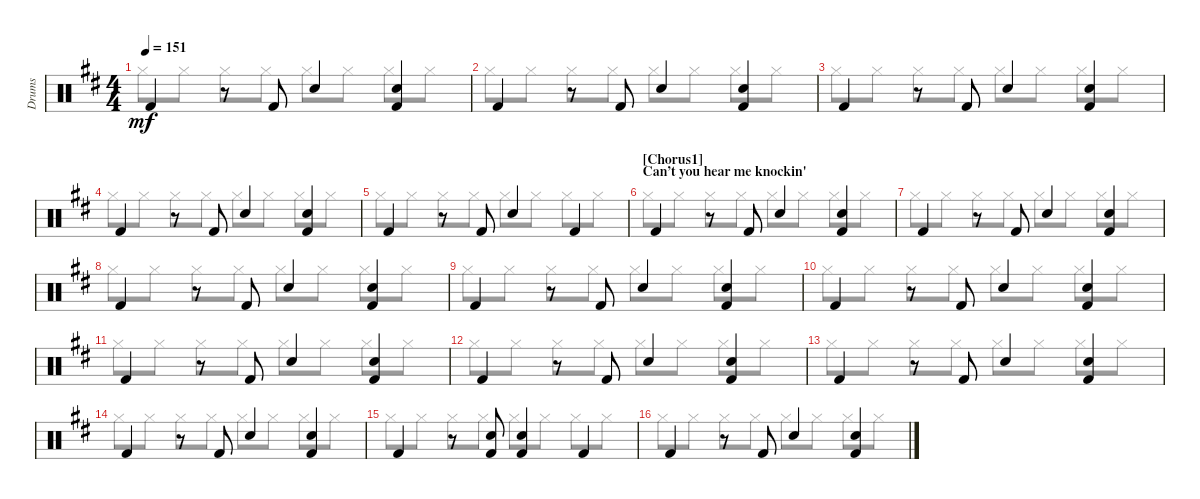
\bracketExtendMode groupsimilarinstruments
\track ("Drumkit" "Drums") {instrument percussion}
\staff {score}
\articulation defaults
\voice
\ts (4 4)
\tempo 151
\clef neutral
\ks d "Kick (hit) 2"{acc forcenatural}.4{dy mf}
r.8 "Kick (hit) 2"{acc forcenatural}.8 "Snare (hit) 2"{acc forcenatural}.4 ("Kick (hit) 2"{acc forcenatural} "Snare (hit) 2"{acc forcenatural}).4 |
"Kick (hit) 2"{acc forcenatural}.4 r.8 "Kick (hit) 2"{acc forcenatural}.8 "Snare (hit) 2"{acc forcenatural}.4 ("Kick (hit) 2"{acc forcenatural} "Snare (hit) 2"{acc forcenatural}).4 |
"Kick (hit) 2"{acc forcenatural}.4 r.8 "Kick (hit) 2"{acc forcenatural}.8 "Snare (hit) 2"{acc forcenatural}.4 ("Kick (hit) 2"{acc forcenatural} "Snare (hit) 2"{acc forcenatural}).4 |
"Kick (hit) 2"{acc forcenatural}.4 r.8 "Kick (hit) 2"{acc forcenatural}.8 "Snare (hit) 2"{acc forcenatural}.4 ("Kick (hit) 2"{acc forcenatural} "Snare (hit) 2"{acc forcenatural}).4 |
"Kick (hit) 2"{acc forcenatural}.4 r.8 "Kick (hit) 2"{acc forcenatural}.8 "Snare (hit) 2"{acc forcenatural}.4 "Kick (hit) 2"{acc forcenatural}.4 |
\section ("" "[Chorus1]\nCan’t you hear me knockin'\n")
"Kick (hit) 2"{acc forcenatural}.4 r.8 "Kick (hit) 2"{acc forcenatural}.8 "Snare (hit) 2"{acc forcenatural}.4 ("Kick (hit) 2"{acc forcenatural} "Snare (hit) 2"{acc forcenatural}).4 |
"Kick (hit) 2"{acc forcenatural}.4 r.8 "Kick (hit) 2"{acc forcenatural}.8 "Snare (hit) 2"{acc forcenatural}.4 ("Kick (hit) 2"{acc forcenatural} "Snare (hit) 2"{acc forcenatural}).4 |
"Kick (hit) 2"{acc forcenatural}.4 r.8 "Kick (hit) 2"{acc forcenatural}.8 "Snare (hit) 2"{acc forcenatural}.4 ("Kick (hit) 2"{acc forcenatural} "Snare (hit) 2"{acc forcenatural}).4 |
"Kick (hit) 2"{acc forcenatural}.4 r.8 "Kick (hit) 2"{acc forcenatural}.8 "Snare (hit) 2"{acc forcenatural}.4 ("Kick (hit) 2"{acc forcenatural} "Snare (hit) 2"{acc forcenatural}).4 |
"Kick (hit) 2"{acc forcenatural}.4 r.8 "Kick (hit) 2"{acc forcenatural}.8 "Snare (hit) 2"{acc forcenatural}.4 ("Kick (hit) 2"{acc forcenatural} "Snare (hit) 2"{acc forcenatural}).4 |
"Kick (hit) 2"{acc forcenatural}.4 r.8 "Kick (hit) 2"{acc forcenatural}.8 "Snare (hit) 2"{acc forcenatural}.4 ("Kick (hit) 2"{acc forcenatural} "Snare (hit) 2"{acc forcenatural}).4 |
"Kick (hit) 2"{acc forcenatural}.4 r.8 "Kick (hit) 2"{acc forcenatural}.8 "Snare (hit) 2"{acc forcenatural}.4 ("Kick (hit) 2"{acc forcenatural} "Snare (hit) 2"{acc forcenatural}).4 |
"Kick (hit) 2"{acc forcenatural}.4 r.8 "Kick (hit) 2"{acc forcenatural}.8 "Snare (hit) 2"{acc forcenatural}.4 ("Kick (hit) 2"{acc forcenatural} "Snare (hit) 2"{acc forcenatural}).4 |
"Kick (hit) 2"{acc forcenatural}.4 r.8 "Kick (hit) 2"{acc forcenatural}.8 "Snare (hit) 2"{acc forcenatural}.4 ("Kick (hit) 2"{acc forcenatural} "Snare (hit) 2"{acc forcenatural}).4 |
"Kick (hit) 2"{acc forcenatural}.4 r.8 ("Kick (hit) 2"{acc forcenatural} "Snare (hit) 2"{acc forcenatural}).8 ("Kick (hit) 2"{acc forcenatural} "Snare (hit) 2"{acc forcenatural}).4 "Kick (hit) 2"{acc forcenatural}.4 |
"Kick (hit) 2"{acc forcenatural}.4 r.8 "Kick (hit) 2"{acc forcenatural}.8 "Snare (hit) 2"{acc forcenatural}.4 ("Kick (hit) 2"{acc forcenatural} "Snare (hit) 2"{acc forcenatural}).4
\voice
\clef neutral
\ottava regular
\simile none
\ks d "Hi-Hat (closed)"{acc forcenatural}.8{dy mf} "Hi-Hat (closed)"{acc forcenatural}.8 "Hi-Hat (closed)"{acc forcenatural}.8 "Hi-Hat (closed)"{acc forcenatural}.8 "Hi-Hat (closed)"{acc forcenatural}.8 "Hi-Hat (closed)"{acc forcenatural}.8 "Hi-Hat (closed)"{acc forcenatural}.8 "Hi-Hat (closed)"{acc forcenatural}.8
|
"Hi-Hat (closed)"{acc forcenatural}.8 "Hi-Hat (closed)"{acc forcenatural}.8 "Hi-Hat (closed)"{acc forcenatural}.8 "Hi-Hat (closed)"{acc forcenatural}.8 "Hi-Hat (closed)"{acc forcenatural}.8 "Hi-Hat (closed)"{acc forcenatural}.8 "Hi-Hat (closed)"{acc forcenatural}.8 "Hi-Hat (closed)"{acc forcenatural}.8 |
"Hi-Hat (closed)"{acc forcenatural}.8 "Hi-Hat (closed)"{acc forcenatural}.8 "Hi-Hat (closed)"{acc forcenatural}.8 "Hi-Hat (closed)"{acc forcenatural}.8 "Hi-Hat (closed)"{acc forcenatural}.8 "Hi-Hat (closed)"{acc forcenatural}.8 "Hi-Hat (closed)"{acc forcenatural}.8 "Hi-Hat (closed)"{acc forcenatural}.8 |
"Hi-Hat (closed)"{acc forcenatural}.8 "Hi-Hat (closed)"{acc forcenatural}.8 "Hi-Hat (closed)"{acc forcenatural}.8 "Hi-Hat (closed)"{acc forcenatural}.8 "Hi-Hat (closed)"{acc forcenatural}.8 "Hi-Hat (closed)"{acc forcenatural}.8 "Hi-Hat (closed)"{acc forcenatural}.8 "Hi-Hat (closed)"{acc forcenatural}.8 |
"Hi-Hat (closed)"{acc forcenatural}.8 "Hi-Hat (closed)"{acc forcenatural}.8 "Hi-Hat (closed)"{acc forcenatural}.8 "Hi-Hat (closed)"{acc forcenatural}.8 "Hi-Hat (closed)"{acc forcenatural}.8 "Hi-Hat (closed)"{acc forcenatural}.8 "Hi-Hat (closed)"{acc forcenatural}.8 "Hi-Hat (closed)"{acc forcenatural}.8 |
"Hi-Hat (closed)"{acc forcenatural}.8 "Hi-Hat (closed)"{acc forcenatural}.8 "Hi-Hat (closed)"{acc forcenatural}.8 "Hi-Hat (closed)"{acc forcenatural}.8 "Hi-Hat (closed)"{acc forcenatural}.8 "Hi-Hat (closed)"{acc forcenatural}.8 "Hi-Hat (closed)"{acc forcenatural}.8 "Hi-Hat (closed)"{acc forcenatural}.8 |
"Hi-Hat (closed)"{acc forcenatural}.8 "Hi-Hat (closed)"{acc forcenatural}.8 "Hi-Hat (closed)"{acc forcenatural}.8 "Hi-Hat (closed)"{acc forcenatural}.8 "Hi-Hat (closed)"{acc forcenatural}.8 "Hi-Hat (closed)"{acc forcenatural}.8 "Hi-Hat (closed)"{acc forcenatural}.8 "Hi-Hat (closed)"{acc forcenatural}.8 |
"Hi-Hat (closed)"{acc forcenatural}.8 "Hi-Hat (closed)"{acc forcenatural}.8 "Hi-Hat (closed)"{acc forcenatural}.8 "Hi-Hat (closed)"{acc forcenatural}.8 "Hi-Hat (closed)"{acc forcenatural}.8 "Hi-Hat (closed)"{acc forcenatural}.8 "Hi-Hat (closed)"{acc forcenatural}.8 "Hi-Hat (closed)"{acc forcenatural}.8 |
"Hi-Hat (closed)"{acc forcenatural}.8 "Hi-Hat (closed)"{acc forcenatural}.8 "Hi-Hat (closed)"{acc forcenatural}.8 "Hi-Hat (closed)"{acc forcenatural}.8 "Hi-Hat (closed)"{acc forcenatural}.8 "Hi-Hat (closed)"{acc forcenatural}.8 "Hi-Hat (closed)"{acc forcenatural}.8 "Hi-Hat (closed)"{acc forcenatural}.8 |
"Hi-Hat (closed)"{acc forcenatural}.8 "Hi-Hat (closed)"{acc forcenatural}.8 "Hi-Hat (closed)"{acc forcenatural}.8 "Hi-Hat (closed)"{acc forcenatural}.8 "Hi-Hat (closed)"{acc forcenatural}.8 "Hi-Hat (closed)"{acc forcenatural}.8 "Hi-Hat (closed)"{acc forcenatural}.8 "Hi-Hat (closed)"{acc forcenatural}.8 |
"Hi-Hat (closed)"{acc forcenatural}.8 "Hi-Hat (closed)"{acc forcenatural}.8 "Hi-Hat (closed)"{acc forcenatural}.8 "Hi-Hat (closed)"{acc forcenatural}.8 "Hi-Hat (closed)"{acc forcenatural}.8 "Hi-Hat (closed)"{acc forcenatural}.8 "Hi-Hat (closed)"{acc forcenatural}.8 "Hi-Hat (closed)"{acc forcenatural}.8 |
"Hi-Hat (closed)"{acc forcenatural}.8 "Hi-Hat (closed)"{acc forcenatural}.8 "Hi-Hat (closed)"{acc forcenatural}.8 "Hi-Hat (closed)"{acc forcenatural}.8 "Hi-Hat (closed)"{acc forcenatural}.8 "Hi-Hat (closed)"{acc forcenatural}.8 "Hi-Hat (closed)"{acc forcenatural}.8 "Hi-Hat (closed)"{acc forcenatural}.8 |
"Hi-Hat (closed)"{acc forcenatural}.8 "Hi-Hat (closed)"{acc forcenatural}.8 "Hi-Hat (closed)"{acc forcenatural}.8 "Hi-Hat (closed)"{acc forcenatural}.8 "Hi-Hat (closed)"{acc forcenatural}.8 "Hi-Hat (closed)"{acc forcenatural}.8 "Hi-Hat (closed)"{acc forcenatural}.8 "Hi-Hat (closed)"{acc forcenatural}.8 |
"Hi-Hat (closed)"{acc forcenatural}.8 "Hi-Hat (closed)"{acc forcenatural}.8 "Hi-Hat (closed)"{acc forcenatural}.8 "Hi-Hat (closed)"{acc forcenatural}.8 "Hi-Hat (closed)"{acc forcenatural}.8 "Hi-Hat (closed)"{acc forcenatural}.8 "Hi-Hat (closed)"{acc forcenatural}.8 "Hi-Hat (closed)"{acc forcenatural}.8 |
"Hi-Hat (closed)"{acc forcenatural}.8 "Hi-Hat (closed)"{acc forcenatural}.8 "Hi-Hat (closed)"{acc forcenatural}.8 "Hi-Hat (closed)"{acc forcenatural}.8 "Hi-Hat (closed)"{acc forcenatural}.8 "Hi-Hat (closed)"{acc forcenatural}.8 "Hi-Hat (closed)"{acc forcenatural}.8 "Hi-Hat (closed)"{acc forcenatural}.8 |
"Hi-Hat (closed)"{acc forcenatural}.8 "Hi-Hat (closed)"{acc forcenatural}.8 "Hi-Hat (closed)"{acc forcenatural}.8 "Hi-Hat (closed)"{acc forcenatural}.8 "Hi-Hat (closed)"{acc forcenatural}.8 "Hi-Hat (closed)"{acc forcenatural}.8 "Hi-Hat (closed)"{acc forcenatural}.8 "Hi-Hat (closed)"{acc forcenatural}.8
